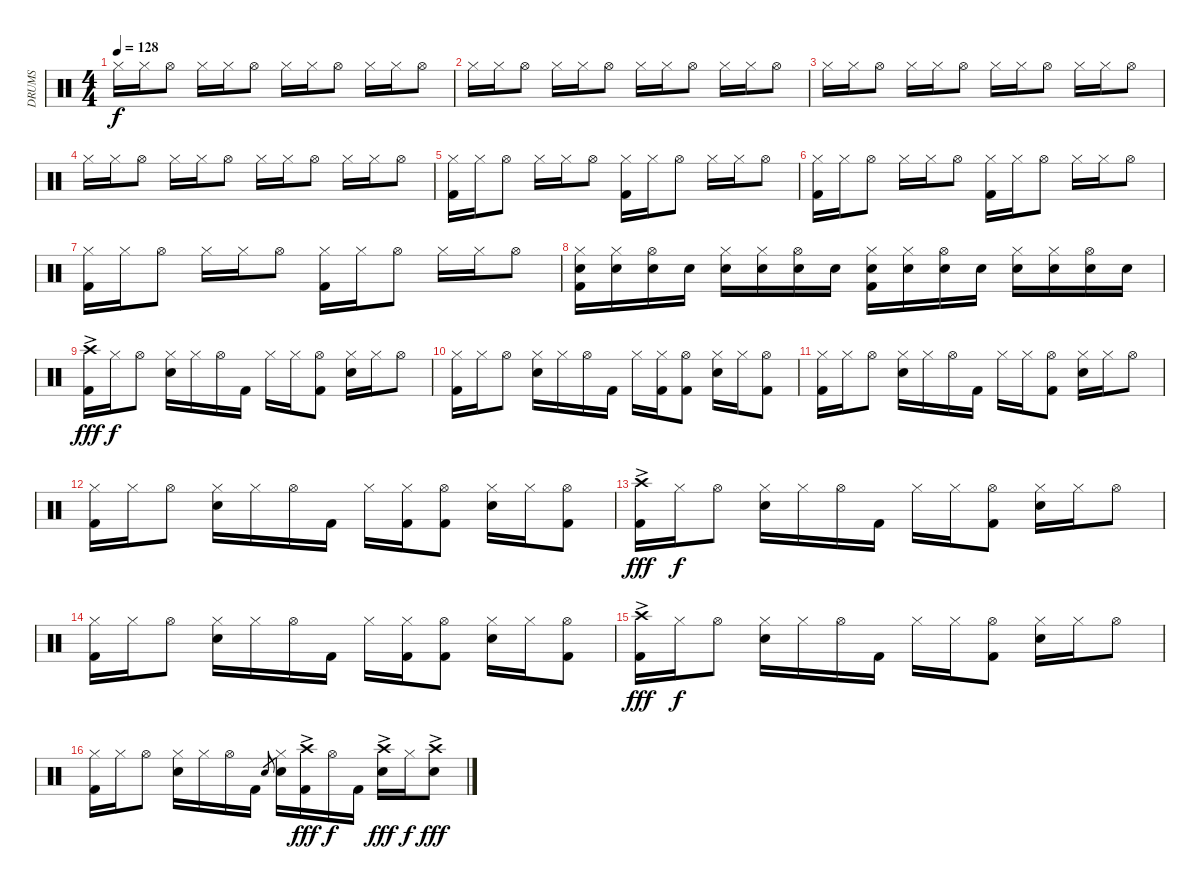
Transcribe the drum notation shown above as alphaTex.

\track ("DRUMS" "DRUMS") {instrument percussion}
\staff {score}
\articulation defaults
\ts (4 4)
\tempo 128
\clef neutral
\ks c "Hi-Hat (closed)".16{dy f} "Hi-Hat (closed)".16 "Hi-Hat (open)".8 "Hi-Hat (closed)".16 "Hi-Hat (closed)".16 "Hi-Hat (open)".8 "Hi-Hat (closed)".16 "Hi-Hat (closed)".16 "Hi-Hat (open)".8 "Hi-Hat (closed)".16 "Hi-Hat (closed)".16 "Hi-Hat (open)".8
|
"Hi-Hat (closed)".16 "Hi-Hat (closed)".16 "Hi-Hat (open)".8 "Hi-Hat (closed)".16 "Hi-Hat (closed)".16 "Hi-Hat (open)".8 "Hi-Hat (closed)".16 "Hi-Hat (closed)".16 "Hi-Hat (open)".8 "Hi-Hat (closed)".16 "Hi-Hat (closed)".16 "Hi-Hat (open)".8 |
"Hi-Hat (closed)".16 "Hi-Hat (closed)".16 "Hi-Hat (open)".8 "Hi-Hat (closed)".16 "Hi-Hat (closed)".16 "Hi-Hat (open)".8 "Hi-Hat (closed)".16 "Hi-Hat (closed)".16 "Hi-Hat (open)".8 "Hi-Hat (closed)".16 "Hi-Hat (closed)".16 "Hi-Hat (open)".8 |
"Hi-Hat (closed)".16 "Hi-Hat (closed)".16 "Hi-Hat (open)".8 "Hi-Hat (closed)".16 "Hi-Hat (closed)".16 "Hi-Hat (open)".8 "Hi-Hat (closed)".16 "Hi-Hat (closed)".16 "Hi-Hat (open)".8 "Hi-Hat (closed)".16 "Hi-Hat (closed)".16 "Hi-Hat (open)".8 |
("Hi-Hat (closed)" "Kick (hit) 2").16 "Hi-Hat (closed)".16 "Hi-Hat (open)".8 "Hi-Hat (closed)".16 "Hi-Hat (closed)".16 "Hi-Hat (open)".8 ("Hi-Hat (closed)" "Kick (hit) 2").16 "Hi-Hat (closed)".16 "Hi-Hat (open)".8 "Hi-Hat (closed)".16 "Hi-Hat (closed)".16 "Hi-Hat (open)".8 |
("Hi-Hat (closed)" "Kick (hit) 2").16 "Hi-Hat (closed)".16 "Hi-Hat (open)".8 "Hi-Hat (closed)".16 "Hi-Hat (closed)".16 "Hi-Hat (open)".8 ("Hi-Hat (closed)" "Kick (hit) 2").16 "Hi-Hat (closed)".16 "Hi-Hat (open)".8 "Hi-Hat (closed)".16 "Hi-Hat (closed)".16 "Hi-Hat (open)".8 |
("Hi-Hat (closed)" "Kick (hit) 2").16 "Hi-Hat (closed)".16 "Hi-Hat (open)".8 "Hi-Hat (closed)".16 "Hi-Hat (closed)".16 "Hi-Hat (open)".8 ("Hi-Hat (closed)" "Kick (hit) 2").16 "Hi-Hat (closed)".16 "Hi-Hat (open)".8 "Hi-Hat (closed)".16 "Hi-Hat (closed)".16 "Hi-Hat (open)".8 |
("Hi-Hat (closed)" "Snare (hit) 2" "Kick (hit) 2").16 ("Hi-Hat (closed)" "Snare (hit) 2").16 ("Hi-Hat (open)" "Snare (hit) 2").16 "Snare (hit) 2".16 ("Hi-Hat (closed)" "Snare (hit) 2").16 ("Hi-Hat (closed)" "Snare (hit) 2").16 ("Hi-Hat (open)" "Snare (hit) 2").16 "Snare (hit) 2".16 ("Hi-Hat (closed)" "Snare (hit) 2" "Kick (hit) 2").16 ("Hi-Hat (closed)" "Snare (hit) 2").16 ("Hi-Hat (open)" "Snare (hit) 2").16 "Snare (hit) 2".16 ("Hi-Hat (closed)" "Snare (hit) 2").16 ("Hi-Hat (closed)" "Snare (hit) 2").16 ("Hi-Hat (open)" "Snare (hit) 2").16 "Snare (hit) 2".16 |
("Crash high (hit)"{ac} "Kick (hit) 2").16{dy fff} "Hi-Hat (closed)".16{dy f} "Hi-Hat (open)".8 ("Hi-Hat (closed)" "Snare (hit) 2").16 "Hi-Hat (closed)".16 "Hi-Hat (open)".16 "Kick (hit) 2".16 "Hi-Hat (closed)".16 "Hi-Hat (closed)".16 ("Hi-Hat (open)" "Kick (hit) 2").8 ("Hi-Hat (closed)" "Snare (hit) 2").16 "Hi-Hat (closed)".16 "Hi-Hat (open)".8 |
("Hi-Hat (closed)" "Kick (hit) 2").16 "Hi-Hat (closed)".16 "Hi-Hat (open)".8 ("Hi-Hat (closed)" "Snare (hit) 2").16 "Hi-Hat (closed)".16 "Hi-Hat (open)".16 "Kick (hit) 2".16 "Hi-Hat (closed)".16 ("Hi-Hat (closed)" "Kick (hit) 2").16 ("Hi-Hat (open)" "Kick (hit) 2").8 ("Hi-Hat (closed)" "Snare (hit) 2").16 "Hi-Hat (closed)".16 ("Hi-Hat (open)" "Kick (hit) 2").8 |
("Hi-Hat (closed)" "Kick (hit) 2").16 "Hi-Hat (closed)".16 "Hi-Hat (open)".8 ("Hi-Hat (closed)" "Snare (hit) 2").16 "Hi-Hat (closed)".16 "Hi-Hat (open)".16 "Kick (hit) 2".16 "Hi-Hat (closed)".16 "Hi-Hat (closed)".16 ("Hi-Hat (open)" "Kick (hit) 2").8 ("Hi-Hat (closed)" "Snare (hit) 2").16 "Hi-Hat (closed)".16 "Hi-Hat (open)".8 |
("Hi-Hat (closed)" "Kick (hit) 2").16 "Hi-Hat (closed)".16 "Hi-Hat (open)".8 ("Hi-Hat (closed)" "Snare (hit) 2").16 "Hi-Hat (closed)".16 "Hi-Hat (open)".16 "Kick (hit) 2".16 "Hi-Hat (closed)".16 ("Hi-Hat (closed)" "Kick (hit) 2").16 ("Hi-Hat (open)" "Kick (hit) 2").8 ("Hi-Hat (closed)" "Snare (hit) 2").16 "Hi-Hat (closed)".16 ("Hi-Hat (open)" "Kick (hit) 2").8 |
("Crash high (hit)"{ac} "Kick (hit) 2").16{dy fff} "Hi-Hat (closed)".16{dy f} "Hi-Hat (open)".8 ("Hi-Hat (closed)" "Snare (hit) 2").16 "Hi-Hat (closed)".16 "Hi-Hat (open)".16 "Kick (hit) 2".16 "Hi-Hat (closed)".16 "Hi-Hat (closed)".16 ("Hi-Hat (open)" "Kick (hit) 2").8 ("Hi-Hat (closed)" "Snare (hit) 2").16 "Hi-Hat (closed)".16 "Hi-Hat (open)".8 |
("Hi-Hat (closed)" "Kick (hit) 2").16 "Hi-Hat (closed)".16 "Hi-Hat (open)".8 ("Hi-Hat (closed)" "Snare (hit) 2").16 "Hi-Hat (closed)".16 "Hi-Hat (open)".16 "Kick (hit) 2".16 "Hi-Hat (closed)".16 ("Hi-Hat (closed)" "Kick (hit) 2").16 ("Hi-Hat (open)" "Kick (hit) 2").8 ("Hi-Hat (closed)" "Snare (hit) 2").16 "Hi-Hat (closed)".16 ("Hi-Hat (open)" "Kick (hit) 2").8 |
("Crash high (hit)"{ac} "Kick (hit) 2").16{dy fff} "Hi-Hat (closed)".16{dy f} "Hi-Hat (open)".8 ("Hi-Hat (closed)" "Snare (hit) 2").16 "Hi-Hat (closed)".16 "Hi-Hat (open)".16 "Kick (hit) 2".16 "Hi-Hat (closed)".16 "Hi-Hat (closed)".16 ("Hi-Hat (open)" "Kick (hit) 2").8 ("Hi-Hat (closed)" "Snare (hit) 2").16 "Hi-Hat (closed)".16 "Hi-Hat (open)".8 |
("Hi-Hat (closed)" "Kick (hit) 2").16 "Hi-Hat (closed)".16 "Hi-Hat (open)".8 ("Hi-Hat (closed)" "Snare (hit) 2").16 "Hi-Hat (closed)".16 "Hi-Hat (open)".16 "Kick (hit) 2".16 "Snare (hit) 2".8{gr} ("Hi-Hat (closed)" "Snare (hit) 2").16 ("Crash high (hit)"{ac} "Kick (hit) 2").16{dy fff} "Hi-Hat (open)".16{dy f} "Kick (hit) 2".16 ("Crash high (hit)"{ac} "Snare (hit) 2").16{dy fff} "Hi-Hat (closed)".16{dy f} ("Crash high (hit)"{ac} "Snare (hit) 2").8{dy fff}
